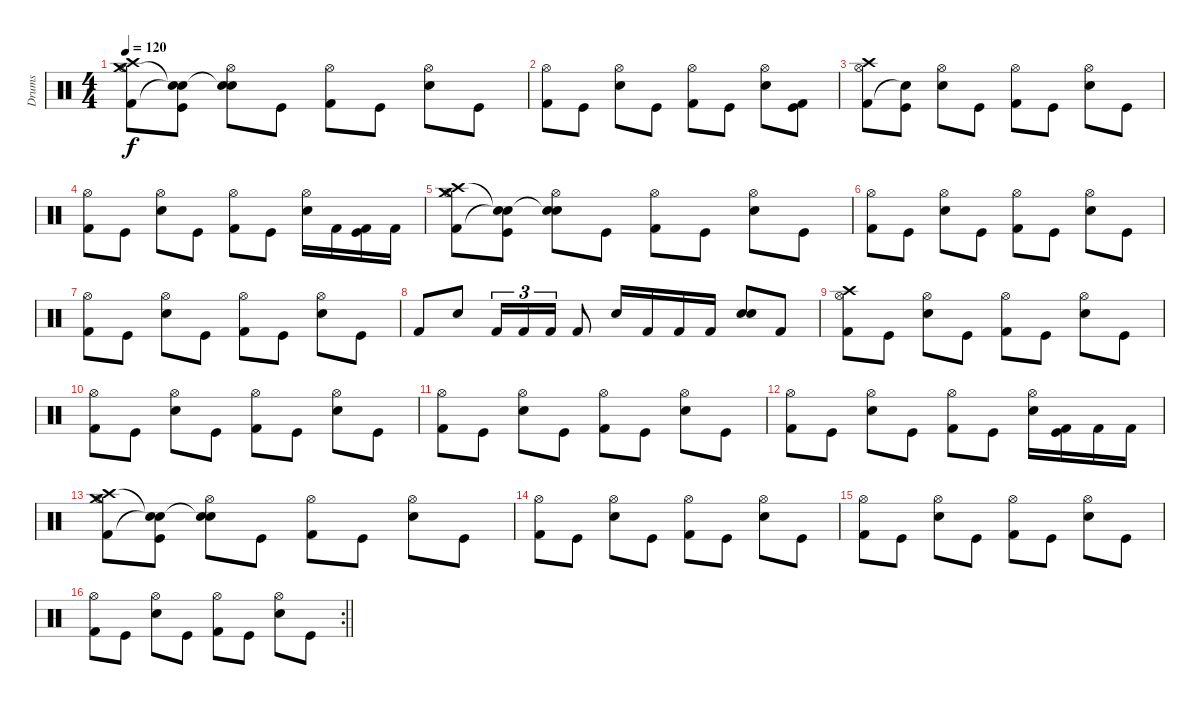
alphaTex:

\track ("Drums" "Drums") {instrument percussion}
\staff {score}
\articulation defaults
\ts (4 4)
\tempo 120
\clef neutral
\ks c
("Hi-Hat (open)" "Kick (hit) 2" "Crash medium (hit)" "Crash high (hit)").8{dy f} ("Kick (hit)" "Snare (hit)"{t} "Snare (hit)"{t}).8 ("Hi-Hat (open)" "Electric Snare (hit)" "Snare (hit)"{t}).8 "Kick (hit)".8 ("Hi-Hat (open)" "Kick (hit) 2").8 "Kick (hit)".8 ("Hi-Hat (open)" "Electric Snare (hit)").8 "Kick (hit)".8 |
("Hi-Hat (open)" "Kick (hit) 2").8 "Kick (hit)".8 ("Hi-Hat (open)" "Electric Snare (hit)").8 "Kick (hit)".8 ("Hi-Hat (open)" "Kick (hit) 2").8 "Kick (hit)".8 ("Hi-Hat (open)" "Electric Snare (hit)").8 ("Kick (hit)" "Kick (hit) 2").8 |
("Hi-Hat (open)" "Kick (hit) 2" "Crash high (hit)").8 ("Kick (hit)" "Snare (hit)"{t}).8 ("Hi-Hat (open)" "Electric Snare (hit)").8 "Kick (hit)".8 ("Hi-Hat (open)" "Kick (hit) 2").8 "Kick (hit)".8 ("Hi-Hat (open)" "Electric Snare (hit)").8 "Kick (hit)".8 |
("Hi-Hat (open)" "Kick (hit) 2").8 "Kick (hit)".8 ("Hi-Hat (open)" "Electric Snare (hit)").8 "Kick (hit)".8 ("Hi-Hat (open)" "Kick (hit) 2").8 "Kick (hit)".8 ("Hi-Hat (open)" "Electric Snare (hit)").16 "Kick (hit) 2".16 ("Kick (hit)" "Kick (hit) 2").16 "Kick (hit) 2".16 |
("Hi-Hat (open)" "Kick (hit) 2" "Crash high (hit)" "Crash medium (hit)").8 ("Kick (hit)" "Snare (hit)"{t} "Snare (hit)"{t}).8 ("Hi-Hat (open)" "Electric Snare (hit)" "Snare (hit)"{t}).8 "Kick (hit)".8 ("Hi-Hat (open)" "Kick (hit) 2").8 "Kick (hit)".8 ("Hi-Hat (open)" "Electric Snare (hit)").8 "Kick (hit)".8 |
("Hi-Hat (open)" "Kick (hit) 2").8 "Kick (hit)".8 ("Hi-Hat (open)" "Electric Snare (hit)").8 "Kick (hit)".8 ("Hi-Hat (open)" "Kick (hit) 2").8 "Kick (hit)".8 ("Hi-Hat (open)" "Electric Snare (hit)").8 "Kick (hit)".8 |
("Hi-Hat (open)" "Kick (hit) 2").8 "Kick (hit)".8 ("Hi-Hat (open)" "Electric Snare (hit)").8 "Kick (hit)".8 ("Hi-Hat (open)" "Kick (hit) 2").8 "Kick (hit)".8 ("Hi-Hat (open)" "Electric Snare (hit)").8 "Kick (hit)".8 |
"Kick (hit) 2".8 "Electric Snare (hit)".8 "Kick (hit) 2".16{tu (3 2)} "Kick (hit) 2".16{tu (3 2)} "Kick (hit) 2".16{tu (3 2)} "Kick (hit) 2".8 "Electric Snare (hit)".16 "Kick (hit) 2".16 "Kick (hit) 2".16 "Kick (hit) 2".16 ("Snare (hit) 2" "Electric Snare (hit)").8 "Kick (hit) 2".8 |
("Hi-Hat (open)" "Kick (hit) 2" "Crash high (hit)").8 "Kick (hit)".8 ("Hi-Hat (open)" "Electric Snare (hit)").8 "Kick (hit)".8 ("Hi-Hat (open)" "Kick (hit) 2").8 "Kick (hit)".8 ("Hi-Hat (open)" "Electric Snare (hit)").8 "Kick (hit)".8 |
("Hi-Hat (open)" "Kick (hit) 2").8 "Kick (hit)".8 ("Hi-Hat (open)" "Electric Snare (hit)").8 "Kick (hit)".8 ("Hi-Hat (open)" "Kick (hit) 2").8 "Kick (hit)".8 ("Hi-Hat (open)" "Electric Snare (hit)").8 "Kick (hit)".8 |
("Hi-Hat (open)" "Kick (hit) 2").8 "Kick (hit)".8 ("Hi-Hat (open)" "Electric Snare (hit)").8 "Kick (hit)".8 ("Hi-Hat (open)" "Kick (hit) 2").8 "Kick (hit)".8 ("Hi-Hat (open)" "Electric Snare (hit)").8 "Kick (hit)".8 |
("Hi-Hat (open)" "Kick (hit) 2").8 "Kick (hit)".8 ("Hi-Hat (open)" "Electric Snare (hit)").8 "Kick (hit)".8 ("Hi-Hat (open)" "Kick (hit) 2").8 "Kick (hit)".8 ("Hi-Hat (open)" "Electric Snare (hit)").16 ("Kick (hit)" "Kick (hit) 2").16 "Kick (hit) 2".16 "Kick (hit) 2".16 |
("Hi-Hat (open)" "Kick (hit) 2" "Crash high (hit)" "Crash medium (hit)").8 ("Kick (hit)" "Snare (hit)"{t} "Snare (hit)"{t}).8 ("Hi-Hat (open)" "Electric Snare (hit)" "Snare (hit)"{t}).8 "Kick (hit)".8 ("Hi-Hat (open)" "Kick (hit) 2").8 "Kick (hit)".8 ("Hi-Hat (open)" "Electric Snare (hit)").8 "Kick (hit)".8 |
("Hi-Hat (open)" "Kick (hit) 2").8 "Kick (hit)".8 ("Hi-Hat (open)" "Electric Snare (hit)").8 "Kick (hit)".8 ("Hi-Hat (open)" "Kick (hit) 2").8 "Kick (hit)".8 ("Hi-Hat (open)" "Electric Snare (hit)").8 "Kick (hit)".8 |
("Hi-Hat (open)" "Kick (hit) 2").8 "Kick (hit)".8 ("Hi-Hat (open)" "Electric Snare (hit)").8 "Kick (hit)".8 ("Hi-Hat (open)" "Kick (hit) 2").8 "Kick (hit)".8 ("Hi-Hat (open)" "Electric Snare (hit)").8 "Kick (hit)".8 |
\rc 2
\barLineRight lightlight
("Hi-Hat (open)" "Kick (hit) 2").8 "Kick (hit)".8 ("Hi-Hat (open)" "Electric Snare (hit)").8 "Kick (hit)".8 ("Hi-Hat (open)" "Kick (hit) 2").8 "Kick (hit)".8 ("Hi-Hat (open)" "Electric Snare (hit)").8 "Kick (hit)".8
